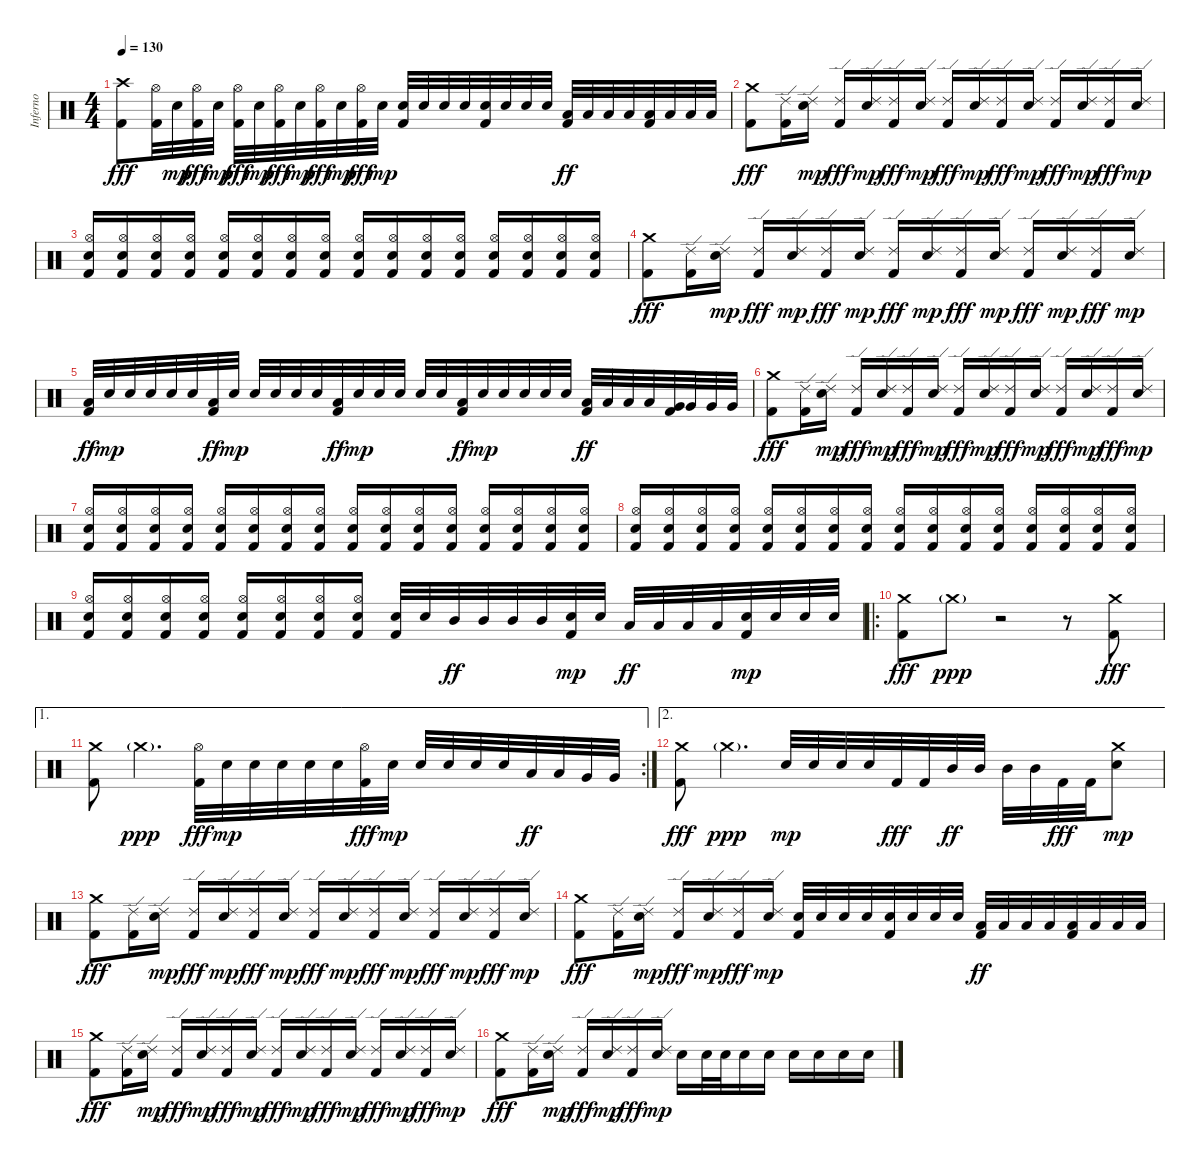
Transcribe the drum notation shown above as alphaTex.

\track ("Inferno" "Inferno") {instrument percussion}
\staff {score}
\articulation defaults
\ts (4 4)
\tempo 130
\clef neutral
\ks c
("Kick (hit) 2" "Crash high (hit)").8{dy fff} ("Kick (hit) 2" "Hi-Hat (open)").32 "Electric Snare (hit)".32{dy mp} ("Kick (hit) 2" "Hi-Hat (open)").32{dy fff} "Electric Snare (hit)".32{dy mp} ("Kick (hit) 2" "Hi-Hat (open)").32{dy fff} "Electric Snare (hit)".32{dy mp} ("Kick (hit) 2" "Hi-Hat (open)").32{dy fff} "Electric Snare (hit)".32{dy mp} ("Kick (hit) 2" "Hi-Hat (open)").32{dy fff} "Electric Snare (hit)".32{dy mp} ("Kick (hit) 2" "Hi-Hat (open)").32{dy fff} "Electric Snare (hit)".32{dy mp} ("Kick (hit) 2" "Electric Snare (hit)").32 "Electric Snare (hit)".32 "Electric Snare (hit)".32 "Electric Snare (hit)".32 ("Kick (hit) 2" "Electric Snare (hit)").32 "Electric Snare (hit)".32 "Electric Snare (hit)".32 "Electric Snare (hit)".32 ("Kick (hit) 2" "Low Tom (hit)").32{dy ff} "Low Tom (hit)".32 "Low Tom (hit)".32 "Low Tom (hit)".32 ("Kick (hit) 2" "Low Tom (hit)").32 "Low Tom (hit)".32 "Low Tom (hit)".32 "Low Tom (hit)".32 |
("Kick (hit) 2" "Crash medium (hit)").8{dy fff} ("Kick (hit) 2" "Ride (edge) 2").16 ("Ride (edge) 2" "Electric Snare (hit)").16{dy mp} ("Kick (hit) 2" "Ride (edge) 2").16{dy fff} ("Ride (edge) 2" "Electric Snare (hit)").16{dy mp} ("Kick (hit) 2" "Ride (edge) 2").16{dy fff} ("Ride (edge) 2" "Electric Snare (hit)").16{dy mp} ("Kick (hit) 2" "Ride (edge) 2").16{dy fff} ("Ride (edge) 2" "Electric Snare (hit)").16{dy mp} ("Kick (hit) 2" "Ride (edge) 2").16{dy fff} ("Ride (edge) 2" "Electric Snare (hit)").16{dy mp} ("Kick (hit) 2" "Ride (edge) 2").16{dy fff} ("Ride (edge) 2" "Electric Snare (hit)").16{dy mp} ("Kick (hit) 2" "Ride (edge) 2").16{dy fff} ("Ride (edge) 2" "Electric Snare (hit)").16{dy mp} |
("Kick (hit) 2" "Hi-Hat (open)" "Electric Snare (hit)").16 ("Kick (hit) 2" "Hi-Hat (open)" "Electric Snare (hit)").16 ("Kick (hit) 2" "Hi-Hat (open)" "Electric Snare (hit)").16 ("Kick (hit) 2" "Hi-Hat (open)" "Electric Snare (hit)").16 ("Kick (hit) 2" "Hi-Hat (open)" "Electric Snare (hit)").16 ("Kick (hit) 2" "Hi-Hat (open)" "Electric Snare (hit)").16 ("Kick (hit) 2" "Hi-Hat (open)" "Electric Snare (hit)").16 ("Kick (hit) 2" "Hi-Hat (open)" "Electric Snare (hit)").16 ("Kick (hit) 2" "Hi-Hat (open)" "Electric Snare (hit)").16 ("Kick (hit) 2" "Hi-Hat (open)" "Electric Snare (hit)").16 ("Kick (hit) 2" "Hi-Hat (open)" "Electric Snare (hit)").16 ("Kick (hit) 2" "Hi-Hat (open)" "Electric Snare (hit)").16 ("Kick (hit) 2" "Hi-Hat (open)" "Electric Snare (hit)").16 ("Kick (hit) 2" "Hi-Hat (open)" "Electric Snare (hit)").16 ("Kick (hit) 2" "Hi-Hat (open)" "Electric Snare (hit)").16 ("Kick (hit) 2" "Hi-Hat (open)" "Electric Snare (hit)").16 |
("Kick (hit) 2" "Crash medium (hit)").8{dy fff} ("Kick (hit) 2" "Ride (edge) 2").16 ("Ride (edge) 2" "Electric Snare (hit)").16{dy mp} ("Kick (hit) 2" "Ride (edge) 2").16{dy fff} ("Ride (edge) 2" "Electric Snare (hit)").16{dy mp} ("Kick (hit) 2" "Ride (edge) 2").16{dy fff} ("Ride (edge) 2" "Electric Snare (hit)").16{dy mp} ("Kick (hit) 2" "Ride (edge) 2").16{dy fff} ("Ride (edge) 2" "Electric Snare (hit)").16{dy mp} ("Kick (hit) 2" "Ride (edge) 2").16{dy fff} ("Ride (edge) 2" "Electric Snare (hit)").16{dy mp} ("Kick (hit) 2" "Ride (edge) 2").16{dy fff} ("Ride (edge) 2" "Electric Snare (hit)").16{dy mp} ("Kick (hit) 2" "Ride (edge) 2").16{dy fff} ("Ride (edge) 2" "Electric Snare (hit)").16{dy mp} |
("Kick (hit) 2" "Low Tom (hit)").32{dy ff} "Electric Snare (hit)".32{dy mp} "Electric Snare (hit)".32 "Electric Snare (hit)".32 "Electric Snare (hit)".32 "Electric Snare (hit)".32 ("Kick (hit) 2" "Low Tom (hit)").32{dy ff} "Electric Snare (hit)".32{dy mp} "Electric Snare (hit)".32 "Electric Snare (hit)".32 "Electric Snare (hit)".32 "Electric Snare (hit)".32 ("Kick (hit) 2" "Low Tom (hit)").32{dy ff} "Electric Snare (hit)".32{dy mp} "Electric Snare (hit)".32 "Electric Snare (hit)".32 "Electric Snare (hit)".32 "Electric Snare (hit)".32 ("Kick (hit) 2" "Low Tom (hit)").32{dy ff} "Electric Snare (hit)".32{dy mp} "Electric Snare (hit)".32 "Electric Snare (hit)".32 "Electric Snare (hit)".32 "Electric Snare (hit)".32 ("Kick (hit) 2" "Low Tom (hit)").32{dy ff} "Low Tom (hit)".32 "Low Tom (hit)".32 "Low Tom (hit)".32 ("Kick (hit) 2" "Very Low Tom (hit)").32 "Very Low Tom (hit)".32 "Very Low Tom (hit)".32 "Very Low Tom (hit)".32 |
("Kick (hit) 2" "Crash medium (hit)").8{dy fff} ("Kick (hit) 2" "Ride (edge) 2").16 ("Ride (edge) 2" "Electric Snare (hit)").16{dy mp} ("Kick (hit) 2" "Ride (edge) 2").16{dy fff} ("Ride (edge) 2" "Electric Snare (hit)").16{dy mp} ("Kick (hit) 2" "Ride (edge) 2").16{dy fff} ("Ride (edge) 2" "Electric Snare (hit)").16{dy mp} ("Kick (hit) 2" "Ride (edge) 2").16{dy fff} ("Ride (edge) 2" "Electric Snare (hit)").16{dy mp} ("Kick (hit) 2" "Ride (edge) 2").16{dy fff} ("Ride (edge) 2" "Electric Snare (hit)").16{dy mp} ("Kick (hit) 2" "Ride (edge) 2").16{dy fff} ("Ride (edge) 2" "Electric Snare (hit)").16{dy mp} ("Kick (hit) 2" "Ride (edge) 2").16{dy fff} ("Ride (edge) 2" "Electric Snare (hit)").16{dy mp} |
("Kick (hit) 2" "Hi-Hat (open)" "Electric Snare (hit)").16 ("Kick (hit) 2" "Hi-Hat (open)" "Electric Snare (hit)").16 ("Kick (hit) 2" "Hi-Hat (open)" "Electric Snare (hit)").16 ("Kick (hit) 2" "Hi-Hat (open)" "Electric Snare (hit)").16 ("Kick (hit) 2" "Hi-Hat (open)" "Electric Snare (hit)").16 ("Kick (hit) 2" "Hi-Hat (open)" "Electric Snare (hit)").16 ("Kick (hit) 2" "Hi-Hat (open)" "Electric Snare (hit)").16 ("Kick (hit) 2" "Hi-Hat (open)" "Electric Snare (hit)").16 ("Kick (hit) 2" "Hi-Hat (open)" "Electric Snare (hit)").16 ("Kick (hit) 2" "Hi-Hat (open)" "Electric Snare (hit)").16 ("Kick (hit) 2" "Hi-Hat (open)" "Electric Snare (hit)").16 ("Kick (hit) 2" "Hi-Hat (open)" "Electric Snare (hit)").16 ("Kick (hit) 2" "Hi-Hat (open)" "Electric Snare (hit)").16 ("Kick (hit) 2" "Hi-Hat (open)" "Electric Snare (hit)").16 ("Kick (hit) 2" "Hi-Hat (open)" "Electric Snare (hit)").16 ("Kick (hit) 2" "Hi-Hat (open)" "Electric Snare (hit)").16 |
("Kick (hit) 2" "Hi-Hat (open)" "Electric Snare (hit)").16 ("Kick (hit) 2" "Hi-Hat (open)" "Electric Snare (hit)").16 ("Kick (hit) 2" "Hi-Hat (open)" "Electric Snare (hit)").16 ("Kick (hit) 2" "Hi-Hat (open)" "Electric Snare (hit)").16 ("Kick (hit) 2" "Hi-Hat (open)" "Electric Snare (hit)").16 ("Kick (hit) 2" "Hi-Hat (open)" "Electric Snare (hit)").16 ("Kick (hit) 2" "Hi-Hat (open)" "Electric Snare (hit)").16 ("Kick (hit) 2" "Hi-Hat (open)" "Electric Snare (hit)").16 ("Kick (hit) 2" "Hi-Hat (open)" "Electric Snare (hit)").16 ("Kick (hit) 2" "Hi-Hat (open)" "Electric Snare (hit)").16 ("Kick (hit) 2" "Hi-Hat (open)" "Electric Snare (hit)").16 ("Kick (hit) 2" "Hi-Hat (open)" "Electric Snare (hit)").16 ("Kick (hit) 2" "Hi-Hat (open)" "Electric Snare (hit)").16 ("Kick (hit) 2" "Hi-Hat (open)" "Electric Snare (hit)").16 ("Kick (hit) 2" "Hi-Hat (open)" "Electric Snare (hit)").16 ("Kick (hit) 2" "Hi-Hat (open)" "Electric Snare (hit)").16 |
("Kick (hit) 2" "Hi-Hat (open)" "Electric Snare (hit)").16 ("Kick (hit) 2" "Hi-Hat (open)" "Electric Snare (hit)").16 ("Kick (hit) 2" "Hi-Hat (open)" "Electric Snare (hit)").16 ("Kick (hit) 2" "Hi-Hat (open)" "Electric Snare (hit)").16 ("Kick (hit) 2" "Hi-Hat (open)" "Electric Snare (hit)").16 ("Kick (hit) 2" "Hi-Hat (open)" "Electric Snare (hit)").16 ("Kick (hit) 2" "Hi-Hat (open)" "Electric Snare (hit)").16 ("Kick (hit) 2" "Hi-Hat (open)" "Electric Snare (hit)").16 ("Kick (hit) 2" "Electric Snare (hit)").32 "Electric Snare (hit)".32 "Mid Tom (hit)".32{dy ff} "Mid Tom (hit)".32 "Mid Tom (hit)".32 "Mid Tom (hit)".32 ("Kick (hit) 2" "Electric Snare (hit)").32{dy mp} "Electric Snare (hit)".32 "Low Tom (hit)".32{dy ff} "Low Tom (hit)".32 "Low Tom (hit)".32 "Low Tom (hit)".32 ("Kick (hit) 2" "Electric Snare (hit)").32{dy mp} "Electric Snare (hit)".32 "Electric Snare (hit)".32 "Electric Snare (hit)".32 |
\ro
("Kick (hit) 2" "Crash medium (hit)").8{dy fff} "Crash medium (hit)"{g}.8{dy ppp} r.2 r.8 ("Kick (hit) 2" "Crash medium (hit)").8{dy fff} |
\ae 1
\rc 2
("Kick (hit) 2" "Crash medium (hit)").8 "Crash medium (hit)"{g}.4{d dy ppp} ("Kick (hit) 2" "Hi-Hat (open)").32{dy fff} "Electric Snare (hit)".32{dy mp} "Electric Snare (hit)".32 "Electric Snare (hit)".32 "Electric Snare (hit)".32 "Electric Snare (hit)".32 ("Kick (hit) 2" "Hi-Hat (open)").32{dy fff} "Electric Snare (hit)".32{dy mp} "Electric Snare (hit)".32 "Electric Snare (hit)".32 "Electric Snare (hit)".32 "Electric Snare (hit)".32 "Low Tom (hit)".32{dy ff} "Low Tom (hit)".32 "Very Low Tom (hit)".32 "Very Low Tom (hit)".32 |
\ae 2
("Kick (hit) 2" "Crash medium (hit)").8{dy fff} "Crash medium (hit)"{g}.4{d dy ppp} "Electric Snare (hit)".32{dy mp} "Electric Snare (hit)".32 "Electric Snare (hit)".32 "Electric Snare (hit)".32 "Kick (hit) 2".32{dy fff} "Kick (hit) 2".32 "Mid Tom (hit)".32{dy ff} "Mid Tom (hit)".32 "Mid Tom (hit)".32 "Mid Tom (hit)".32 "Kick (hit) 2".32{dy fff} "Kick (hit) 2".32 ("Crash medium (hit)" "Electric Snare (hit)").8{dy mp} |
("Kick (hit) 2" "Crash medium (hit)").8{dy fff} ("Kick (hit) 2" "Ride (edge) 2").16 ("Ride (edge) 2" "Electric Snare (hit)").16{dy mp} ("Kick (hit) 2" "Ride (edge) 2").16{dy fff} ("Ride (edge) 2" "Electric Snare (hit)").16{dy mp} ("Kick (hit) 2" "Ride (edge) 2").16{dy fff} ("Ride (edge) 2" "Electric Snare (hit)").16{dy mp} ("Kick (hit) 2" "Ride (edge) 2").16{dy fff} ("Ride (edge) 2" "Electric Snare (hit)").16{dy mp} ("Kick (hit) 2" "Ride (edge) 2").16{dy fff} ("Ride (edge) 2" "Electric Snare (hit)").16{dy mp} ("Kick (hit) 2" "Ride (edge) 2").16{dy fff} ("Ride (edge) 2" "Electric Snare (hit)").16{dy mp} ("Kick (hit) 2" "Ride (edge) 2").16{dy fff} ("Ride (edge) 2" "Electric Snare (hit)").16{dy mp} |
("Kick (hit) 2" "Crash medium (hit)").8{dy fff} ("Kick (hit) 2" "Ride (edge) 2").16 ("Ride (edge) 2" "Electric Snare (hit)").16{dy mp} ("Kick (hit) 2" "Ride (edge) 2").16{dy fff} ("Ride (edge) 2" "Electric Snare (hit)").16{dy mp} ("Kick (hit) 2" "Ride (edge) 2").16{dy fff} ("Ride (edge) 2" "Electric Snare (hit)").16{dy mp} ("Kick (hit) 2" "Electric Snare (hit)").32 "Electric Snare (hit)".32 "Electric Snare (hit)".32 "Electric Snare (hit)".32 ("Kick (hit) 2" "Electric Snare (hit)").32 "Electric Snare (hit)".32 "Electric Snare (hit)".32 "Electric Snare (hit)".32 ("Kick (hit) 2" "Low Tom (hit)").32{dy ff} "Low Tom (hit)".32 "Low Tom (hit)".32 "Low Tom (hit)".32 ("Kick (hit) 2" "Low Tom (hit)").32 "Low Tom (hit)".32 "Low Tom (hit)".32 "Low Tom (hit)".32 |
("Kick (hit) 2" "Crash medium (hit)").8{dy fff} ("Kick (hit) 2" "Ride (edge) 2").16 ("Ride (edge) 2" "Electric Snare (hit)").16{dy mp} ("Kick (hit) 2" "Ride (edge) 2").16{dy fff} ("Ride (edge) 2" "Electric Snare (hit)").16{dy mp} ("Kick (hit) 2" "Ride (edge) 2").16{dy fff} ("Ride (edge) 2" "Electric Snare (hit)").16{dy mp} ("Kick (hit) 2" "Ride (edge) 2").16{dy fff} ("Ride (edge) 2" "Electric Snare (hit)").16{dy mp} ("Kick (hit) 2" "Ride (edge) 2").16{dy fff} ("Ride (edge) 2" "Electric Snare (hit)").16{dy mp} ("Kick (hit) 2" "Ride (edge) 2").16{dy fff} ("Ride (edge) 2" "Electric Snare (hit)").16{dy mp} ("Kick (hit) 2" "Ride (edge) 2").16{dy fff} ("Ride (edge) 2" "Electric Snare (hit)").16{dy mp} |
("Kick (hit) 2" "Crash medium (hit)").8{dy fff} ("Kick (hit) 2" "Ride (edge) 2").16 ("Ride (edge) 2" "Electric Snare (hit)").16{dy mp} ("Kick (hit) 2" "Ride (edge) 2").16{dy fff} ("Ride (edge) 2" "Electric Snare (hit)").16{dy mp} ("Kick (hit) 2" "Ride (edge) 2").16{dy fff} ("Ride (edge) 2" "Electric Snare (hit)").16{dy mp} "Electric Snare (hit)".16 "Electric Snare (hit)".32 "Electric Snare (hit)".32 "Electric Snare (hit)".16 "Electric Snare (hit)".16 "Electric Snare (hit)".16 "Electric Snare (hit)".16 "Electric Snare (hit)".16 "Electric Snare (hit)".16
